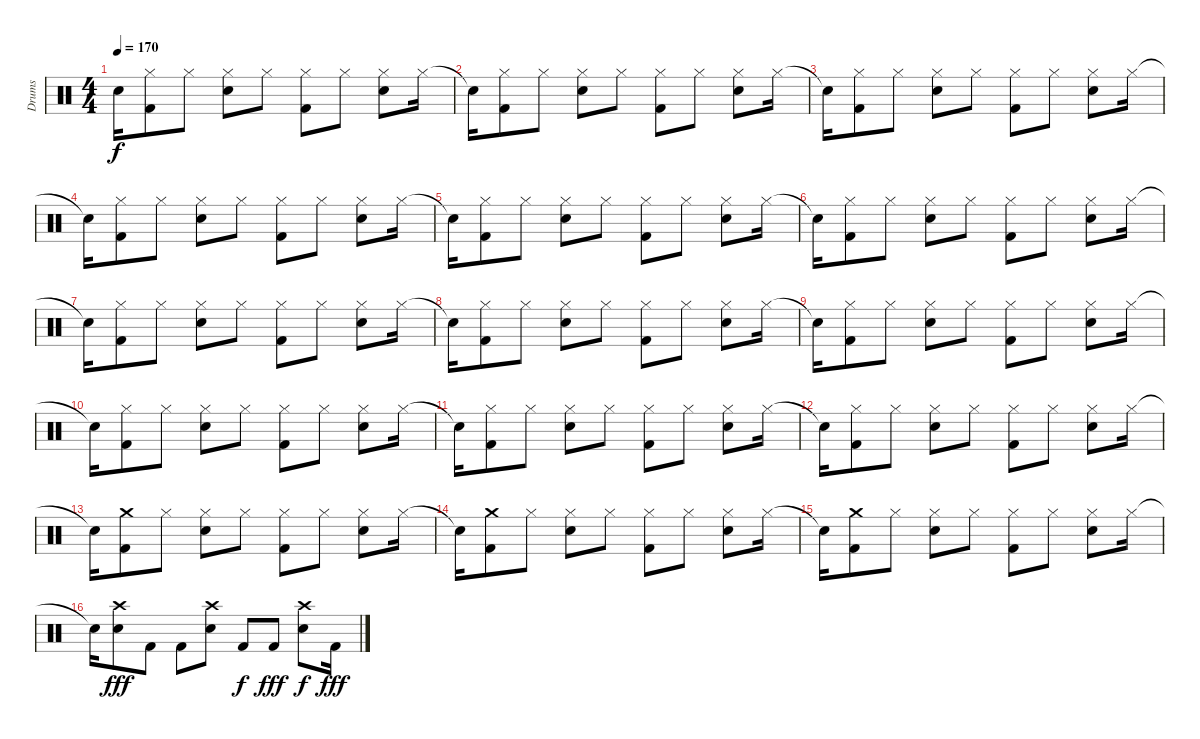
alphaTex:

\track ("Drums" "Drums") {instrument percussion}
\staff {score}
\articulation defaults
\ts (4 4)
\tempo 170
\clef neutral
\ks c "Snare (hit)"{t}.16{dy f}
("Kick (hit) 2" "Hi-Hat (closed)").8 "Hi-Hat (closed)".8 ("Snare (hit) 2" "Hi-Hat (closed)").8 "Hi-Hat (closed)".8 ("Kick (hit) 2" "Hi-Hat (closed)").8 "Hi-Hat (closed)".8 ("Snare (hit) 2" "Hi-Hat (closed)").8 "Hi-Hat (closed)".16 |
"Snare (hit)"{t}.16 ("Kick (hit) 2" "Hi-Hat (closed)").8 "Hi-Hat (closed)".8 ("Snare (hit) 2" "Hi-Hat (closed)").8 "Hi-Hat (closed)".8 ("Kick (hit) 2" "Hi-Hat (closed)").8 "Hi-Hat (closed)".8 ("Snare (hit) 2" "Hi-Hat (closed)").8 "Hi-Hat (closed)".16 |
"Snare (hit)"{t}.16 ("Kick (hit) 2" "Hi-Hat (closed)").8 "Hi-Hat (closed)".8 ("Snare (hit) 2" "Hi-Hat (closed)").8 "Hi-Hat (closed)".8 ("Kick (hit) 2" "Hi-Hat (closed)").8 "Hi-Hat (closed)".8 ("Snare (hit) 2" "Hi-Hat (closed)").8 "Hi-Hat (closed)".16 |
"Snare (hit)"{t}.16 ("Kick (hit) 2" "Hi-Hat (closed)").8 "Hi-Hat (closed)".8 ("Snare (hit) 2" "Hi-Hat (closed)").8 "Hi-Hat (closed)".8 ("Kick (hit) 2" "Hi-Hat (closed)").8 "Hi-Hat (closed)".8 ("Snare (hit) 2" "Hi-Hat (closed)").8 "Hi-Hat (closed)".16 |
"Snare (hit)"{t}.16 ("Kick (hit) 2" "Hi-Hat (closed)").8 "Hi-Hat (closed)".8 ("Snare (hit) 2" "Hi-Hat (closed)").8 "Hi-Hat (closed)".8 ("Kick (hit) 2" "Hi-Hat (closed)").8 "Hi-Hat (closed)".8 ("Snare (hit) 2" "Hi-Hat (closed)").8 "Hi-Hat (closed)".16 |
"Snare (hit)"{t}.16 ("Kick (hit) 2" "Hi-Hat (closed)").8 "Hi-Hat (closed)".8 ("Snare (hit) 2" "Hi-Hat (closed)").8 "Hi-Hat (closed)".8 ("Kick (hit) 2" "Hi-Hat (closed)").8 "Hi-Hat (closed)".8 ("Snare (hit) 2" "Hi-Hat (closed)").8 "Hi-Hat (closed)".16 |
"Snare (hit)"{t}.16 ("Kick (hit) 2" "Hi-Hat (closed)").8 "Hi-Hat (closed)".8 ("Snare (hit) 2" "Hi-Hat (closed)").8 "Hi-Hat (closed)".8 ("Kick (hit) 2" "Hi-Hat (closed)").8 "Hi-Hat (closed)".8 ("Snare (hit) 2" "Hi-Hat (closed)").8 "Hi-Hat (closed)".16 |
"Snare (hit)"{t}.16 ("Kick (hit) 2" "Hi-Hat (closed)").8 "Hi-Hat (closed)".8 ("Snare (hit) 2" "Hi-Hat (closed)").8 "Hi-Hat (closed)".8 ("Kick (hit) 2" "Hi-Hat (closed)").8 "Hi-Hat (closed)".8 ("Snare (hit) 2" "Hi-Hat (closed)").8 "Hi-Hat (closed)".16 |
"Snare (hit)"{t}.16 ("Kick (hit) 2" "Hi-Hat (closed)").8 "Hi-Hat (closed)".8 ("Snare (hit) 2" "Hi-Hat (closed)").8 "Hi-Hat (closed)".8 ("Kick (hit) 2" "Hi-Hat (closed)").8 "Hi-Hat (closed)".8 ("Snare (hit) 2" "Hi-Hat (closed)").8 "Hi-Hat (closed)".16 |
"Snare (hit)"{t}.16 ("Kick (hit) 2" "Hi-Hat (closed)").8 "Hi-Hat (closed)".8 ("Snare (hit) 2" "Hi-Hat (closed)").8 "Hi-Hat (closed)".8 ("Kick (hit) 2" "Hi-Hat (closed)").8 "Hi-Hat (closed)".8 ("Snare (hit) 2" "Hi-Hat (closed)").8 "Hi-Hat (closed)".16 |
"Snare (hit)"{t}.16 ("Kick (hit) 2" "Hi-Hat (closed)").8 "Hi-Hat (closed)".8 ("Snare (hit) 2" "Hi-Hat (closed)").8 "Hi-Hat (closed)".8 ("Kick (hit) 2" "Hi-Hat (closed)").8 "Hi-Hat (closed)".8 ("Snare (hit) 2" "Hi-Hat (closed)").8 "Hi-Hat (closed)".16 |
"Snare (hit)"{t}.16 ("Kick (hit) 2" "Hi-Hat (closed)").8 "Hi-Hat (closed)".8 ("Snare (hit) 2" "Hi-Hat (closed)").8 "Hi-Hat (closed)".8 ("Kick (hit) 2" "Hi-Hat (closed)").8 "Hi-Hat (closed)".8 ("Snare (hit) 2" "Hi-Hat (closed)").8 "Hi-Hat (closed)".16 |
"Snare (hit)"{t}.16 ("Kick (hit) 2" "Crash medium (hit)").8 "Hi-Hat (closed)".8 ("Snare (hit) 2" "Hi-Hat (closed)").8 "Hi-Hat (closed)".8 ("Kick (hit) 2" "Hi-Hat (closed)").8 "Hi-Hat (closed)".8 ("Snare (hit) 2" "Hi-Hat (closed)").8 "Hi-Hat (closed)".16 |
"Snare (hit)"{t}.16 ("Kick (hit) 2" "Crash medium (hit)").8 "Hi-Hat (closed)".8 ("Snare (hit) 2" "Hi-Hat (closed)").8 "Hi-Hat (closed)".8 ("Kick (hit) 2" "Hi-Hat (closed)").8 "Hi-Hat (closed)".8 ("Snare (hit) 2" "Hi-Hat (closed)").8 "Hi-Hat (closed)".16 |
"Snare (hit)"{t}.16 ("Kick (hit) 2" "Crash medium (hit)").8 "Hi-Hat (closed)".8 ("Snare (hit) 2" "Hi-Hat (closed)").8 "Hi-Hat (closed)".8 ("Kick (hit) 2" "Hi-Hat (closed)").8 "Hi-Hat (closed)".8 ("Snare (hit) 2" "Hi-Hat (closed)").8 "Hi-Hat (closed)".16 |
"Snare (hit)"{t}.16 ("Crash high (hit)" "Snare (hit) 2").8{dy fff} "Kick (hit) 2".8 "Kick (hit) 2".8 ("Crash high (hit)" "Snare (hit) 2").8 "Kick (hit) 2".8{dy f} "Kick (hit) 2".8{dy fff} ("Crash high (hit)" "Snare (hit) 2").8{dy f} "Kick (hit) 2".16{dy fff}
